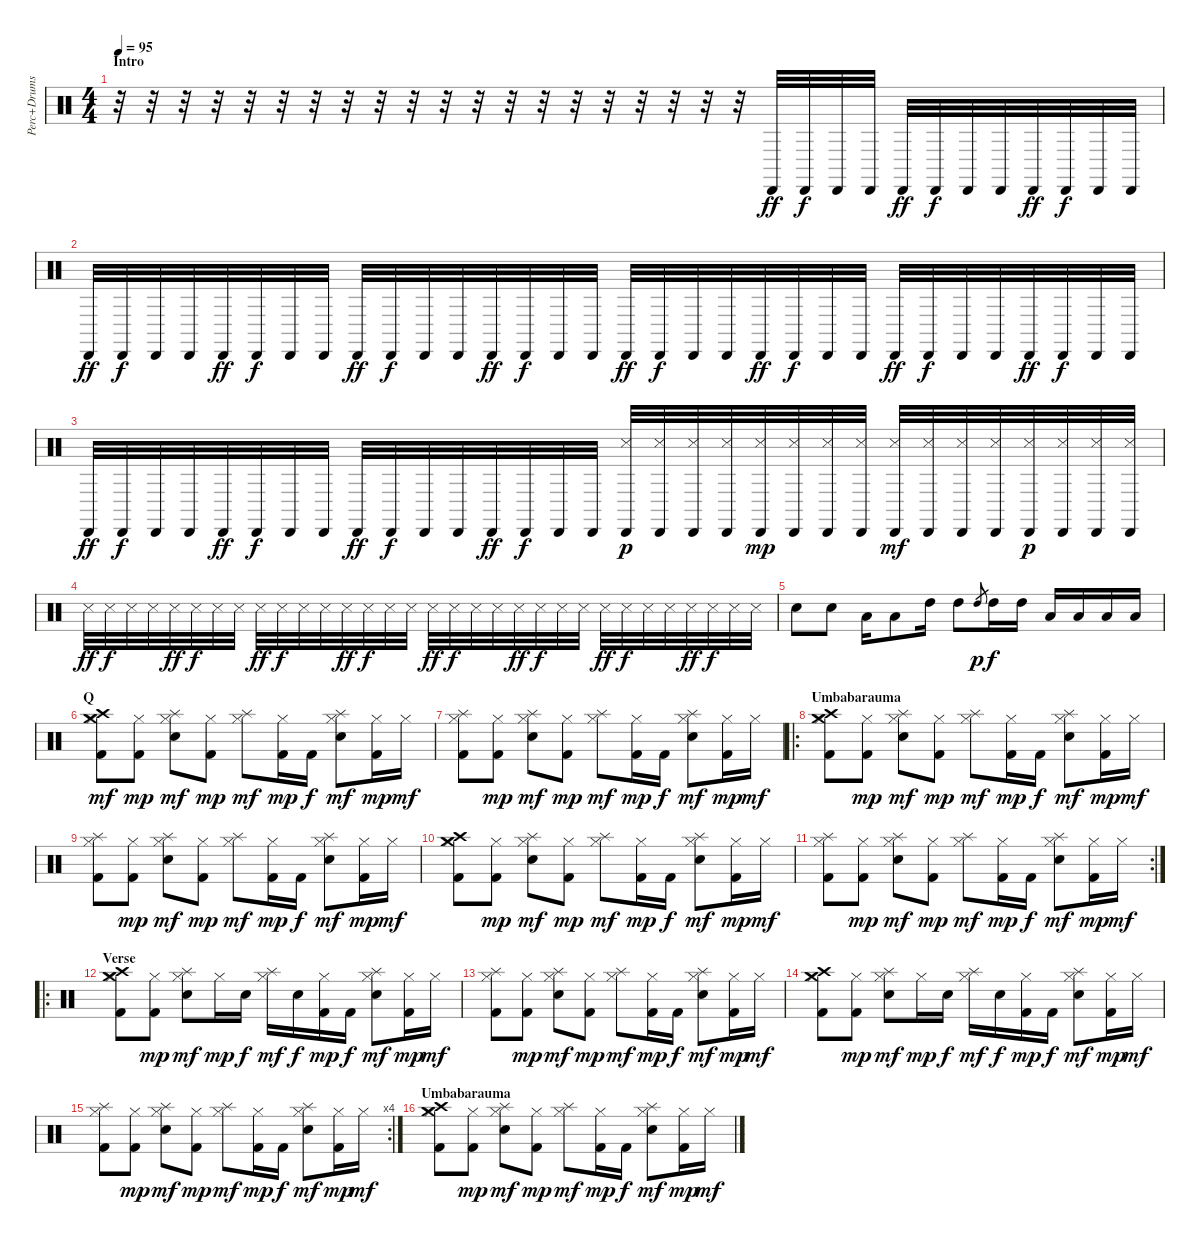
\track ("Perc+Drums" "Perc+Drums") {instrument percussion}
\staff {score}
\articulation defaults
\ts (4 4)
\section ("" "Intro")
\tempo 95
\clef neutral
\ks c
r.32{dy ff volume 13} r.32 r.32 r.32 r.32 r.32 r.32 r.32 r.32 r.32 r.32 r.32{volume 3} r.32 r.32 r.32 r.32 r.32 r.32 r.32 r.32 "Cabasa (hit)".32{volume 10 balance 0} "Cabasa (hit)".32{dy f} "Cabasa (hit)".32 "Cabasa (hit)".32 "Cabasa (hit)".32{dy ff} "Cabasa (hit)".32{dy f} "Cabasa (hit)".32 "Cabasa (hit)".32 "Cabasa (hit)".32{dy ff} "Cabasa (hit)".32{dy f} "Cabasa (hit)".32 "Cabasa (hit)".32 |
"Cabasa (hit)".32{dy ff} "Cabasa (hit)".32{dy f} "Cabasa (hit)".32 "Cabasa (hit)".32 "Cabasa (hit)".32{dy ff} "Cabasa (hit)".32{dy f} "Cabasa (hit)".32 "Cabasa (hit)".32 "Cabasa (hit)".32{dy ff} "Cabasa (hit)".32{dy f} "Cabasa (hit)".32 "Cabasa (hit)".32 "Cabasa (hit)".32{dy ff} "Cabasa (hit)".32{dy f} "Cabasa (hit)".32 "Cabasa (hit)".32 "Cabasa (hit)".32{dy ff} "Cabasa (hit)".32{dy f} "Cabasa (hit)".32 "Cabasa (hit)".32 "Cabasa (hit)".32{dy ff} "Cabasa (hit)".32{dy f} "Cabasa (hit)".32 "Cabasa (hit)".32 "Cabasa (hit)".32{dy ff} "Cabasa (hit)".32{dy f} "Cabasa (hit)".32 "Cabasa (hit)".32 "Cabasa (hit)".32{dy ff} "Cabasa (hit)".32{dy f} "Cabasa (hit)".32 "Cabasa (hit)".32 |
"Cabasa (hit)".32{dy ff} "Cabasa (hit)".32{dy f} "Cabasa (hit)".32 "Cabasa (hit)".32 "Cabasa (hit)".32{dy ff} "Cabasa (hit)".32{dy f} "Cabasa (hit)".32 "Cabasa (hit)".32 "Cabasa (hit)".32{dy ff} "Cabasa (hit)".32{dy f} "Cabasa (hit)".32 "Cabasa (hit)".32 "Cabasa (hit)".32{dy ff} "Cabasa (hit)".32{dy f} "Cabasa (hit)".32 "Cabasa (hit)".32 ("Cabasa (hit)" "Metronome (hit)").32{dy p} ("Cabasa (hit)" "Metronome (hit)").32 ("Cabasa (hit)" "Metronome (hit)").32 ("Cabasa (hit)" "Metronome (hit)").32 ("Cabasa (hit)" "Metronome (hit)").32{dy mp} ("Cabasa (hit)" "Metronome (hit)").32 ("Cabasa (hit)" "Metronome (hit)").32 ("Cabasa (hit)" "Metronome (hit)").32 ("Cabasa (hit)" "Metronome (hit)").32{dy mf} ("Cabasa (hit)" "Metronome (hit)").32 ("Cabasa (hit)" "Metronome (hit)").32 ("Cabasa (hit)" "Metronome (hit)").32 ("Cabasa (hit)" "Metronome (hit)").32{dy p} ("Cabasa (hit)" "Metronome (hit)").32 ("Cabasa (hit)" "Metronome (hit)").32 ("Cabasa (hit)" "Metronome (hit)").32 |
"Metronome (hit)".32{dy ff volume 3 balance 16} "Metronome (hit)".32{dy f} "Metronome (hit)".32 "Metronome (hit)".32 "Metronome (hit)".32{dy ff} "Metronome (hit)".32{dy f} "Metronome (hit)".32 "Metronome (hit)".32 "Metronome (hit)".32{dy ff} "Metronome (hit)".32{dy f} "Metronome (hit)".32 "Metronome (hit)".32 "Metronome (hit)".32{dy ff} "Metronome (hit)".32{dy f} "Metronome (hit)".32 "Metronome (hit)".32 "Metronome (hit)".32{dy ff} "Metronome (hit)".32{dy f} "Metronome (hit)".32 "Metronome (hit)".32 "Metronome (hit)".32{dy ff} "Metronome (hit)".32{dy f} "Metronome (hit)".32 "Metronome (hit)".32 "Metronome (hit)".32{dy ff} "Metronome (hit)".32{dy f} "Metronome (hit)".32 "Metronome (hit)".32 "Metronome (hit)".32{dy ff} "Metronome (hit)".32{dy f} "Metronome (hit)".32 "Metronome (hit)".32 |
"Snare (hit) 2".8{volume 13 balance 8} "Snare (hit) 2".8 "Low Tom (hit)".16 "Low Tom (hit)".8 "High Tom (hit)".16 "High Tom (hit)".8 "High Tom (hit)".8{gr dy p} "High Tom (hit)".16{dy f} "High Tom (hit)".16 "Low Tom (hit)".16 "Low Tom (hit)".16 "Low Floor Tom (hit)".16 "Low Floor Tom (hit)".16 |
\section ("" "Q")
("Crash medium (hit)" "Crash high (hit)" "Hi-Hat (closed)" "Kick (hit) 2").8{dy mf} ("Hi-Hat (closed)" "Kick (hit) 2").8{dy mp} ("Splash (hit)" "Snare (hit) 2" "Hi-Hat (closed)").8{dy mf} ("Hi-Hat (closed)" "Kick (hit) 2").8{dy mp} ("Splash (hit)" "Hi-Hat (closed)").8{dy mf} ("Hi-Hat (closed)" "Kick (hit) 2").16{dy mp} "Kick (hit) 2".16{dy f} ("Splash (hit)" "Snare (hit) 2" "Hi-Hat (closed)").8{dy mf} ("Hi-Hat (closed)" "Kick (hit) 2").16{dy mp} "Hi-Hat (closed)".16{dy mf} |
("Splash (hit)" "Hi-Hat (closed)" "Kick (hit) 2").8 ("Hi-Hat (closed)" "Kick (hit) 2").8{dy mp} ("Splash (hit)" "Snare (hit) 2" "Hi-Hat (closed)").8{dy mf} ("Hi-Hat (closed)" "Kick (hit) 2").8{dy mp} ("Splash (hit)" "Hi-Hat (closed)").8{dy mf} ("Hi-Hat (closed)" "Kick (hit) 2").16{dy mp} "Kick (hit) 2".16{dy f} ("Splash (hit)" "Snare (hit) 2" "Hi-Hat (closed)").8{dy mf} ("Hi-Hat (closed)" "Kick (hit) 2").16{dy mp} "Hi-Hat (closed)".16{dy mf} |
\ro
\section ("" "Umbabarauma")
("Crash medium (hit)" "Crash high (hit)" "Hi-Hat (closed)" "Kick (hit) 2").8 ("Hi-Hat (closed)" "Kick (hit) 2").8{dy mp} ("Splash (hit)" "Snare (hit) 2" "Hi-Hat (closed)").8{dy mf} ("Hi-Hat (closed)" "Kick (hit) 2").8{dy mp} ("Splash (hit)" "Hi-Hat (closed)").8{dy mf} ("Hi-Hat (closed)" "Kick (hit) 2").16{dy mp} "Kick (hit) 2".16{dy f} ("Splash (hit)" "Snare (hit) 2" "Hi-Hat (closed)").8{dy mf} ("Hi-Hat (closed)" "Kick (hit) 2").16{dy mp} "Hi-Hat (closed)".16{dy mf} |
("Splash (hit)" "Hi-Hat (closed)" "Kick (hit) 2").8 ("Hi-Hat (closed)" "Kick (hit) 2").8{dy mp} ("Splash (hit)" "Snare (hit) 2" "Hi-Hat (closed)").8{dy mf} ("Hi-Hat (closed)" "Kick (hit) 2").8{dy mp} ("Splash (hit)" "Hi-Hat (closed)").8{dy mf} ("Hi-Hat (closed)" "Kick (hit) 2").16{dy mp} "Kick (hit) 2".16{dy f} ("Splash (hit)" "Snare (hit) 2" "Hi-Hat (closed)").8{dy mf} ("Hi-Hat (closed)" "Kick (hit) 2").16{dy mp} "Hi-Hat (closed)".16{dy mf} |
("Crash medium (hit)" "Crash high (hit)" "Hi-Hat (closed)" "Kick (hit) 2").8 ("Hi-Hat (closed)" "Kick (hit) 2").8{dy mp} ("Splash (hit)" "Snare (hit) 2" "Hi-Hat (closed)").8{dy mf} ("Hi-Hat (closed)" "Kick (hit) 2").8{dy mp} ("Splash (hit)" "Hi-Hat (closed)").8{dy mf} ("Hi-Hat (closed)" "Kick (hit) 2").16{dy mp} "Kick (hit) 2".16{dy f} ("Splash (hit)" "Snare (hit) 2" "Hi-Hat (closed)").8{dy mf} ("Hi-Hat (closed)" "Kick (hit) 2").16{dy mp} "Hi-Hat (closed)".16{dy mf} |
\rc 2
("Splash (hit)" "Hi-Hat (closed)" "Kick (hit) 2").8 ("Hi-Hat (closed)" "Kick (hit) 2").8{dy mp} ("Splash (hit)" "Snare (hit) 2" "Hi-Hat (closed)").8{dy mf} ("Hi-Hat (closed)" "Kick (hit) 2").8{dy mp} ("Splash (hit)" "Hi-Hat (closed)").8{dy mf} ("Hi-Hat (closed)" "Kick (hit) 2").16{dy mp} "Kick (hit) 2".16{dy f} ("Splash (hit)" "Snare (hit) 2" "Hi-Hat (closed)").8{dy mf} ("Hi-Hat (closed)" "Kick (hit) 2").16{dy mp} "Hi-Hat (closed)".16{dy mf} |
\ro
\section ("" "Verse")
("Crash medium (hit)" "Crash high (hit)" "Hi-Hat (closed)" "Kick (hit) 2").8 ("Hi-Hat (closed)" "Kick (hit) 2").8{dy mp} ("Splash (hit)" "Snare (hit) 2" "Hi-Hat (closed)").8{dy mf} "Hi-Hat (closed)".16{dy mp} "Snare (hit) 2".16{dy f} ("Splash (hit)" "Hi-Hat (closed)").16{dy mf} "Snare (hit) 2".16{dy f} ("Hi-Hat (closed)" "Kick (hit) 2").16{dy mp} "Kick (hit) 2".16{dy f} ("Splash (hit)" "Snare (hit) 2" "Hi-Hat (closed)").8{dy mf} ("Hi-Hat (closed)" "Kick (hit) 2").16{dy mp} "Hi-Hat (closed)".16{dy mf} |
("Splash (hit)" "Hi-Hat (closed)" "Kick (hit) 2").8 ("Hi-Hat (closed)" "Kick (hit) 2").8{dy mp} ("Splash (hit)" "Snare (hit) 2" "Hi-Hat (closed)").8{dy mf} ("Hi-Hat (closed)" "Kick (hit) 2").8{dy mp} ("Splash (hit)" "Hi-Hat (closed)").8{dy mf} ("Hi-Hat (closed)" "Kick (hit) 2").16{dy mp} "Kick (hit) 2".16{dy f} ("Splash (hit)" "Snare (hit) 2" "Hi-Hat (closed)").8{dy mf} ("Hi-Hat (closed)" "Kick (hit) 2").16{dy mp} "Hi-Hat (closed)".16{dy mf} |
("Crash medium (hit)" "Crash high (hit)" "Hi-Hat (closed)" "Kick (hit) 2").8 ("Hi-Hat (closed)" "Kick (hit) 2").8{dy mp} ("Splash (hit)" "Snare (hit) 2" "Hi-Hat (closed)").8{dy mf} "Hi-Hat (closed)".16{dy mp} "Snare (hit) 2".16{dy f} ("Splash (hit)" "Hi-Hat (closed)").16{dy mf} "Snare (hit) 2".16{dy f} ("Hi-Hat (closed)" "Kick (hit) 2").16{dy mp} "Kick (hit) 2".16{dy f} ("Splash (hit)" "Snare (hit) 2" "Hi-Hat (closed)").8{dy mf} ("Hi-Hat (closed)" "Kick (hit) 2").16{dy mp} "Hi-Hat (closed)".16{dy mf} |
\rc 4
("Splash (hit)" "Hi-Hat (closed)" "Kick (hit) 2").8 ("Hi-Hat (closed)" "Kick (hit) 2").8{dy mp} ("Splash (hit)" "Snare (hit) 2" "Hi-Hat (closed)").8{dy mf} ("Hi-Hat (closed)" "Kick (hit) 2").8{dy mp} ("Splash (hit)" "Hi-Hat (closed)").8{dy mf} ("Hi-Hat (closed)" "Kick (hit) 2").16{dy mp} "Kick (hit) 2".16{dy f} ("Splash (hit)" "Snare (hit) 2" "Hi-Hat (closed)").8{dy mf} ("Hi-Hat (closed)" "Kick (hit) 2").16{dy mp} "Hi-Hat (closed)".16{dy mf} |
\section ("" "Umbabarauma")
("Crash medium (hit)" "Crash high (hit)" "Hi-Hat (closed)" "Kick (hit) 2").8 ("Hi-Hat (closed)" "Kick (hit) 2").8{dy mp} ("Splash (hit)" "Snare (hit) 2" "Hi-Hat (closed)").8{dy mf} ("Hi-Hat (closed)" "Kick (hit) 2").8{dy mp} ("Splash (hit)" "Hi-Hat (closed)").8{dy mf} ("Hi-Hat (closed)" "Kick (hit) 2").16{dy mp} "Kick (hit) 2".16{dy f} ("Splash (hit)" "Snare (hit) 2" "Hi-Hat (closed)").8{dy mf} ("Hi-Hat (closed)" "Kick (hit) 2").16{dy mp} "Hi-Hat (closed)".16{dy mf}
